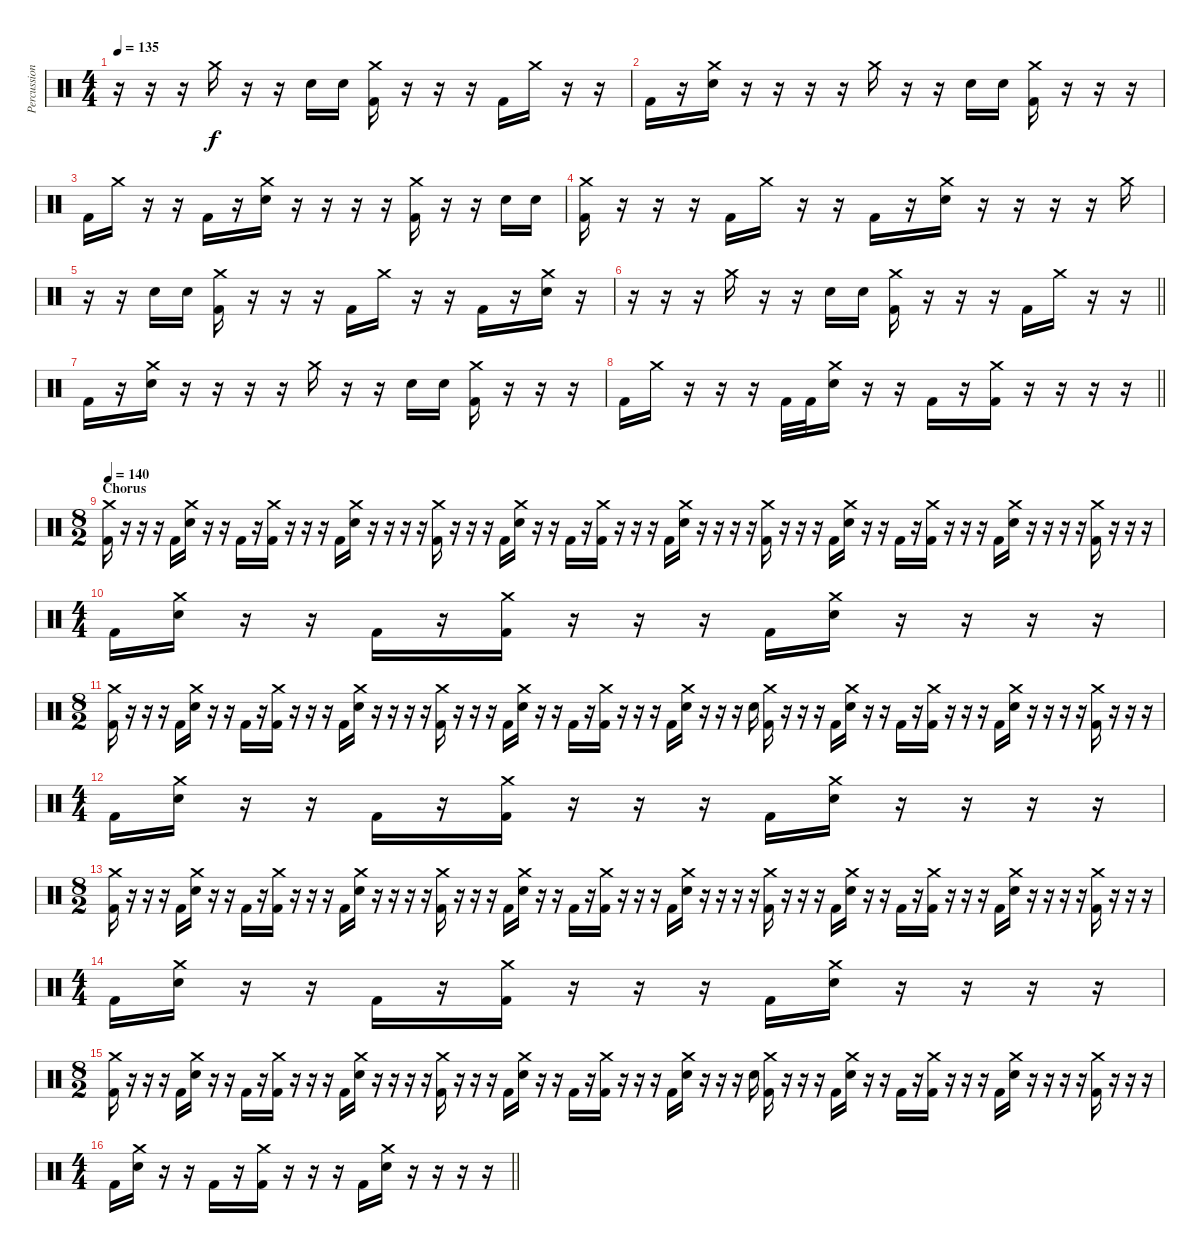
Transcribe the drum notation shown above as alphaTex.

\track ("Percussion" "Percussion") {instrument percussion}
\staff {score}
\articulation defaults
\ts (4 4)
\tempo 135
\clef neutral
\ks c
r.16{dy f} r.16 r.16 "Crash medium (hit)".16 r.16 r.16 "Electric Snare (hit)".16 "Electric Snare (hit)".16 ("Crash medium (hit)" "Kick (hit) 2").16 r.16 r.16 r.16 "Kick (hit) 2".16 "Crash medium (hit)".16 r.16 r.16 |
"Kick (hit) 2".16 r.16 ("Crash medium (hit)" "Electric Snare (hit)").16 r.16 r.16 r.16 r.16 "Crash medium (hit)".16 r.16 r.16 "Electric Snare (hit)".16 "Electric Snare (hit)".16 ("Crash medium (hit)" "Kick (hit) 2").16 r.16 r.16 r.16 |
"Kick (hit) 2".16 "Crash medium (hit)".16 r.16 r.16 "Kick (hit) 2".16 r.16 ("Crash medium (hit)" "Electric Snare (hit)").16 r.16 r.16 r.16 r.16 ("Crash medium (hit)" "Kick (hit) 2").16 r.16 r.16 "Electric Snare (hit)".16 "Electric Snare (hit)".16 |
("Crash medium (hit)" "Kick (hit) 2").16 r.16 r.16 r.16 "Kick (hit) 2".16 "Crash medium (hit)".16 r.16 r.16 "Kick (hit) 2".16 r.16 ("Crash medium (hit)" "Electric Snare (hit)").16 r.16 r.16 r.16 r.16 "Crash medium (hit)".16 |
r.16 r.16 "Electric Snare (hit)".16 "Electric Snare (hit)".16 ("Crash medium (hit)" "Kick (hit) 2").16 r.16 r.16 r.16 "Kick (hit) 2".16 "Crash medium (hit)".16 r.16 r.16 "Kick (hit) 2".16 r.16 ("Crash medium (hit)" "Electric Snare (hit)").16 r.16 |
\barLineRight lightlight
r.16 r.16 r.16 "Crash medium (hit)".16 r.16 r.16 "Electric Snare (hit)".16 "Electric Snare (hit)".16 ("Crash medium (hit)" "Kick (hit) 2").16 r.16 r.16 r.16 "Kick (hit) 2".16 "Crash medium (hit)".16 r.16 r.16 |
"Kick (hit) 2".16 r.16 ("Crash medium (hit)" "Electric Snare (hit)").16 r.16 r.16 r.16 r.16 "Crash medium (hit)".16 r.16 r.16 "Electric Snare (hit)".16 "Electric Snare (hit)".16 ("Crash medium (hit)" "Kick (hit) 2").16 r.16 r.16 r.16 |
\barLineRight lightlight "Kick (hit) 2".16 "Crash medium (hit)".16
r.16 r.16 r.16 "Kick (hit) 2".32 "Kick (hit) 2".32 ("Crash medium (hit)" "Electric Snare (hit)").16 r.16 r.16 "Kick (hit) 2".16 r.16 ("Crash medium (hit)" "Kick (hit) 2").16 r.16 r.16 r.16 r.16 |
\ts (8 2)
\section ("" "Chorus")
\tempo 140
("Crash medium (hit)" "Kick (hit) 2").16 r.16 r.16 r.16 "Kick (hit) 2".16 ("Crash medium (hit)" "Electric Snare (hit)").16 r.16 r.16 "Kick (hit) 2".16 r.16 ("Crash medium (hit)" "Kick (hit) 2").16 r.16 r.16 r.16 "Kick (hit) 2".16 ("Crash medium (hit)" "Electric Snare (hit)").16 r.16 r.16 r.16 r.16 ("Crash medium (hit)" "Kick (hit) 2").16 r.16 r.16 r.16 "Kick (hit) 2".16 ("Crash medium (hit)" "Electric Snare (hit)").16 r.16 r.16 "Kick (hit) 2".16 r.16 ("Crash medium (hit)" "Kick (hit) 2").16 r.16 r.16 r.16 "Kick (hit) 2".16 ("Crash medium (hit)" "Electric Snare (hit)").16 r.16 r.16 r.16 r.16 ("Crash medium (hit)" "Kick (hit) 2").16 r.16 r.16 r.16 "Kick (hit) 2".16 ("Crash medium (hit)" "Electric Snare (hit)").16 r.16 r.16 "Kick (hit) 2".16 r.16 ("Crash medium (hit)" "Kick (hit) 2").16 r.16 r.16 r.16 "Kick (hit) 2".16 ("Crash medium (hit)" "Electric Snare (hit)").16 r.16 r.16 r.16 r.16 ("Crash medium (hit)" "Kick (hit) 2").16 r.16 r.16 r.16 |
\ts (4 4)
"Kick (hit) 2".16 ("Crash medium (hit)" "Electric Snare (hit)").16 r.16 r.16 "Kick (hit) 2".16 r.16 ("Crash medium (hit)" "Kick (hit) 2").16 r.16 r.16 r.16 "Kick (hit) 2".16 ("Crash medium (hit)" "Electric Snare (hit)").16 r.16 r.16 r.16 r.16 |
\ts (8 2)
("Crash medium (hit)" "Kick (hit) 2").16 r.16 r.16 r.16 "Kick (hit) 2".16 ("Crash medium (hit)" "Electric Snare (hit)").16 r.16 r.16 "Kick (hit) 2".16 r.16 ("Crash medium (hit)" "Kick (hit) 2").16 r.16 r.16 r.16 "Kick (hit) 2".16 ("Crash medium (hit)" "Electric Snare (hit)").16 r.16 r.16 r.16 r.16 ("Crash medium (hit)" "Kick (hit) 2").16 r.16 r.16 r.16 "Kick (hit) 2".16 ("Crash medium (hit)" "Electric Snare (hit)").16 r.16 r.16 "Kick (hit) 2".16 r.16 ("Crash medium (hit)" "Kick (hit) 2").16 r.16 r.16 r.16 "Kick (hit) 2".16 ("Crash medium (hit)" "Electric Snare (hit)").16 r.16 r.16 r.16 "Electric Snare (hit)".16 ("Crash medium (hit)" "Kick (hit) 2").16 r.16 r.16 r.16 "Kick (hit) 2".16 ("Crash medium (hit)" "Electric Snare (hit)").16 r.16 r.16 "Kick (hit) 2".16 r.16 ("Crash medium (hit)" "Kick (hit) 2").16 r.16 r.16 r.16 "Kick (hit) 2".16 ("Crash medium (hit)" "Electric Snare (hit)").16 r.16 r.16 r.16 r.16 ("Crash medium (hit)" "Kick (hit) 2").16 r.16 r.16 r.16 |
\ts (4 4)
"Kick (hit) 2".16 ("Crash medium (hit)" "Electric Snare (hit)").16 r.16 r.16 "Kick (hit) 2".16 r.16 ("Crash medium (hit)" "Kick (hit) 2").16 r.16 r.16 r.16 "Kick (hit) 2".16 ("Crash medium (hit)" "Electric Snare (hit)").16 r.16 r.16 r.16 r.16 |
\ts (8 2)
("Crash medium (hit)" "Kick (hit) 2").16 r.16 r.16 r.16 "Kick (hit) 2".16 ("Crash medium (hit)" "Electric Snare (hit)").16 r.16 r.16 "Kick (hit) 2".16 r.16 ("Crash medium (hit)" "Kick (hit) 2").16 r.16 r.16 r.16 "Kick (hit) 2".16 ("Crash medium (hit)" "Electric Snare (hit)").16 r.16 r.16 r.16 r.16 ("Crash medium (hit)" "Kick (hit) 2").16 r.16 r.16 r.16 "Kick (hit) 2".16 ("Crash medium (hit)" "Electric Snare (hit)").16 r.16 r.16 "Kick (hit) 2".16 r.16 ("Crash medium (hit)" "Kick (hit) 2").16 r.16 r.16 r.16 "Kick (hit) 2".16 ("Crash medium (hit)" "Electric Snare (hit)").16 r.16 r.16 r.16 r.16 ("Crash medium (hit)" "Kick (hit) 2").16 r.16 r.16 r.16 "Kick (hit) 2".16 ("Crash medium (hit)" "Electric Snare (hit)").16 r.16 r.16 "Kick (hit) 2".16 r.16 ("Crash medium (hit)" "Kick (hit) 2").16 r.16 r.16 r.16 "Kick (hit) 2".16 ("Crash medium (hit)" "Electric Snare (hit)").16 r.16 r.16 r.16 r.16 ("Crash medium (hit)" "Kick (hit) 2").16 r.16 r.16 r.16 |
\ts (4 4)
"Kick (hit) 2".16 ("Crash medium (hit)" "Electric Snare (hit)").16 r.16 r.16 "Kick (hit) 2".16 r.16 ("Crash medium (hit)" "Kick (hit) 2").16 r.16 r.16 r.16 "Kick (hit) 2".16 ("Crash medium (hit)" "Electric Snare (hit)").16 r.16 r.16 r.16 r.16 |
\ts (8 2)
("Crash medium (hit)" "Kick (hit) 2").16 r.16 r.16 r.16 "Kick (hit) 2".16 ("Crash medium (hit)" "Electric Snare (hit)").16 r.16 r.16 "Kick (hit) 2".16 r.16 ("Crash medium (hit)" "Kick (hit) 2").16 r.16 r.16 r.16 "Kick (hit) 2".16 ("Crash medium (hit)" "Electric Snare (hit)").16 r.16 r.16 r.16 r.16 ("Crash medium (hit)" "Kick (hit) 2").16 r.16 r.16 r.16 "Kick (hit) 2".16 ("Crash medium (hit)" "Electric Snare (hit)").16 r.16 r.16 "Kick (hit) 2".16 r.16 ("Crash medium (hit)" "Kick (hit) 2").16 r.16 r.16 r.16 "Kick (hit) 2".16 ("Crash medium (hit)" "Electric Snare (hit)").16 r.16 r.16 r.16 "Electric Snare (hit)".16 ("Crash medium (hit)" "Kick (hit) 2").16 r.16 r.16 r.16 "Kick (hit) 2".16 ("Crash medium (hit)" "Electric Snare (hit)").16 r.16 r.16 "Kick (hit) 2".16 r.16 ("Crash medium (hit)" "Kick (hit) 2").16 r.16 r.16 r.16 "Kick (hit) 2".16 ("Crash medium (hit)" "Electric Snare (hit)").16 r.16 r.16 r.16 r.16 ("Crash medium (hit)" "Kick (hit) 2").16 r.16 r.16 r.16 |
\ts (4 4)
\barLineRight lightlight "Kick (hit) 2".16
("Crash medium (hit)" "Electric Snare (hit)").16 r.16 r.16 "Kick (hit) 2".16 r.16 ("Crash medium (hit)" "Kick (hit) 2").16 r.16 r.16 r.16 "Kick (hit) 2".16 ("Crash medium (hit)" "Electric Snare (hit)").16 r.16 r.16 r.16 r.16
